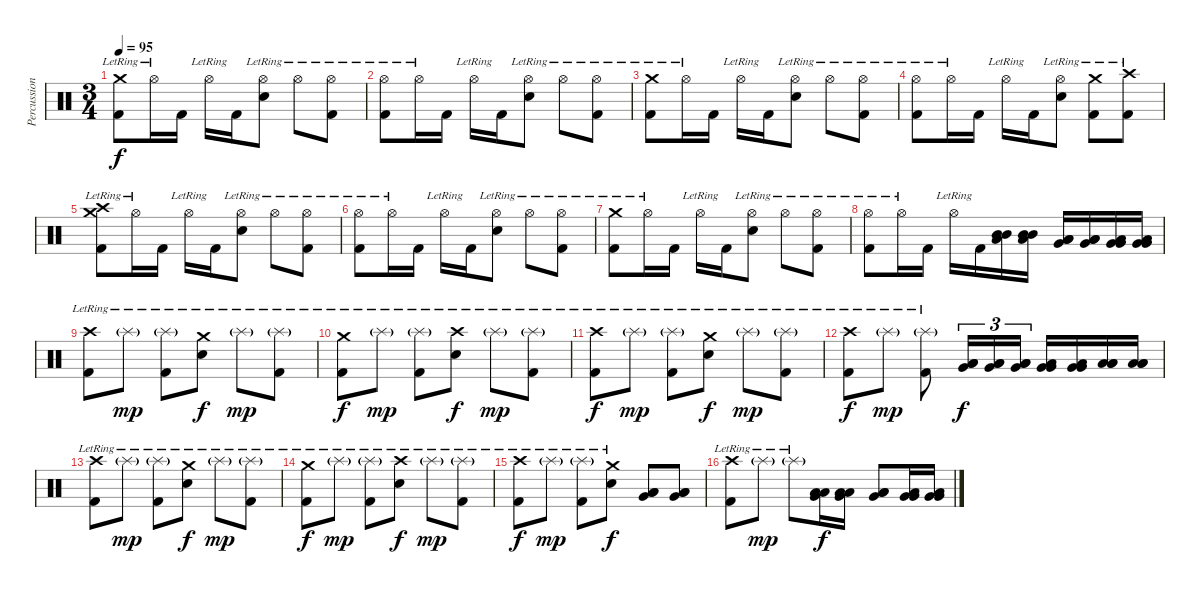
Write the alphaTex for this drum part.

\track ("Percussion I" "Percussion") {instrument percussion}
\staff {score}
\articulation defaults
\ts (3 4)
\tempo 95
\clef neutral
\ks c
("Crash medium (hit)"{lr} "Kick (hit) 2").8{dy f} "Hi-Hat (open)"{lr}.16 "Kick (hit) 2".16 "Hi-Hat (open)"{lr}.16 "Kick (hit) 2".16 ("Hi-Hat (open)"{lr} "Electric Snare (hit)").8 "Hi-Hat (open)"{lr}.8 ("Hi-Hat (open)"{lr} "Kick (hit) 2").8 |
("Hi-Hat (open)"{lr} "Kick (hit) 2").8 "Hi-Hat (open)"{lr}.16 "Kick (hit) 2".16 "Hi-Hat (open)"{lr}.16 "Kick (hit) 2".16 ("Hi-Hat (open)"{lr} "Electric Snare (hit)").8 "Hi-Hat (open)"{lr}.8 ("Hi-Hat (open)"{lr} "Kick (hit) 2").8 |
("Crash medium (hit)"{lr} "Kick (hit) 2").8 "Hi-Hat (open)"{lr}.16 "Kick (hit) 2".16 "Hi-Hat (open)"{lr}.16 "Kick (hit) 2".16 ("Hi-Hat (open)"{lr} "Electric Snare (hit)").8 "Hi-Hat (open)"{lr}.8 ("Hi-Hat (open)"{lr} "Kick (hit) 2").8 |
("Hi-Hat (open)"{lr} "Kick (hit) 2").8 "Hi-Hat (open)"{lr}.16 "Kick (hit) 2".16 "Hi-Hat (open)"{lr}.16 "Kick (hit) 2".16 ("Hi-Hat (open)"{lr} "Electric Snare (hit)").8 ("Crash medium (hit)"{lr} "Kick (hit) 2").8 ("Crash high (hit)"{lr} "Kick (hit) 2").8 |
("Crash medium (hit)"{lr} "Crash high (hit)"{lr} "Kick (hit) 2").8 "Hi-Hat (open)"{lr}.16 "Kick (hit) 2".16 "Hi-Hat (open)"{lr}.16 "Kick (hit) 2".16 ("Hi-Hat (open)"{lr} "Electric Snare (hit)").8 "Hi-Hat (open)"{lr}.8 ("Hi-Hat (open)"{lr} "Kick (hit) 2").8 |
("Hi-Hat (open)"{lr} "Kick (hit) 2").8 "Hi-Hat (open)"{lr}.16 "Kick (hit) 2".16 "Hi-Hat (open)"{lr}.16 "Kick (hit) 2".16 ("Hi-Hat (open)"{lr} "Electric Snare (hit)").8 "Hi-Hat (open)"{lr}.8 ("Hi-Hat (open)"{lr} "Kick (hit) 2").8 |
("Crash medium (hit)"{lr} "Kick (hit) 2").8 "Hi-Hat (open)"{lr}.16 "Kick (hit) 2".16 "Hi-Hat (open)"{lr}.16 "Kick (hit) 2".16 ("Hi-Hat (open)"{lr} "Electric Snare (hit)").8 "Hi-Hat (open)"{lr}.8 ("Hi-Hat (open)"{lr} "Kick (hit) 2").8 |
("Hi-Hat (open)"{lr} "Kick (hit) 2").8 "Hi-Hat (open)"{lr}.16 "Kick (hit) 2".16 "Hi-Hat (open)"{lr}.16 "Kick (hit) 2".16 ("Mid Tom (hit)" "Mid Tom (hit)" "Low Tom (hit)").16 ("Mid Tom (hit)" "Mid Tom (hit)" "Low Tom (hit)").16 ("Low Tom (hit)" "Low Tom (hit)" "Very Low Tom (hit)").16 ("Low Tom (hit)" "Low Tom (hit)" "Very Low Tom (hit)").16 ("Very Low Tom (hit)" "Very Low Tom (hit)" "Low Floor Tom (hit)").16 ("Very Low Tom (hit)" "Very Low Tom (hit)" "Low Floor Tom (hit)").16 |
("Crash high (hit)"{lr} "Kick (hit) 2").8 "Splash (hit)"{g lr}.8{dy mp} ("Splash (hit)"{g lr} "Kick (hit) 2").8 ("Crash medium (hit)"{lr} "Electric Snare (hit)").8{dy f} "Splash (hit)"{g lr}.8{dy mp} ("Splash (hit)"{g lr} "Kick (hit) 2").8 |
("Crash medium (hit)"{lr} "Kick (hit) 2").8{dy f} "Splash (hit)"{g lr}.8{dy mp} ("Splash (hit)"{g lr} "Kick (hit) 2").8 ("Crash high (hit)"{lr} "Electric Snare (hit)").8{dy f} "Splash (hit)"{g lr}.8{dy mp} ("Splash (hit)"{g lr} "Kick (hit) 2").8 |
("Crash high (hit)"{lr} "Kick (hit) 2").8{dy f} "Splash (hit)"{g lr}.8{dy mp} ("Splash (hit)"{g lr} "Kick (hit) 2").8 ("Crash medium (hit)"{lr} "Electric Snare (hit)").8{dy f} "Splash (hit)"{g lr}.8{dy mp} ("Splash (hit)"{g lr} "Kick (hit) 2").8 |
("Crash high (hit)"{lr} "Kick (hit) 2").8{dy f} "Splash (hit)"{g lr}.8{dy mp} ("Splash (hit)"{g lr} "Kick (hit) 2").8 ("Low Tom (hit)" "Low Tom (hit)" "Very Low Tom (hit)").16{tu (3 2) dy f} ("Low Tom (hit)" "Low Tom (hit)" "Very Low Tom (hit)").16{tu (3 2)} ("Low Tom (hit)" "Low Tom (hit)" "Very Low Tom (hit)").16{tu (3 2)} ("Very Low Tom (hit)" "Very Low Tom (hit)" "Low Floor Tom (hit)").16 ("Very Low Tom (hit)" "Very Low Tom (hit)" "Low Floor Tom (hit)").16 ("Low Floor Tom (hit)" "Low Floor Tom (hit)" "Low Floor Tom (hit)").16 ("Low Floor Tom (hit)" "Low Floor Tom (hit)" "Low Floor Tom (hit)").16 |
("Crash high (hit)"{lr} "Kick (hit) 2").8 "Splash (hit)"{g lr}.8{dy mp} ("Splash (hit)"{g lr} "Kick (hit) 2").8 ("Crash medium (hit)"{lr} "Electric Snare (hit)").8{dy f} "Splash (hit)"{g lr}.8{dy mp} ("Splash (hit)"{g lr} "Kick (hit) 2").8 |
("Crash medium (hit)"{lr} "Kick (hit) 2").8{dy f} "Splash (hit)"{g lr}.8{dy mp} ("Splash (hit)"{g lr} "Kick (hit) 2").8 ("Crash high (hit)"{lr} "Electric Snare (hit)").8{dy f} "Splash (hit)"{g lr}.8{dy mp} ("Splash (hit)"{g lr} "Kick (hit) 2").8 |
("Crash high (hit)"{lr} "Kick (hit) 2").8{dy f} "Splash (hit)"{g lr}.8{dy mp} ("Splash (hit)"{g lr} "Kick (hit) 2").8 ("Crash medium (hit)"{lr} "Electric Snare (hit)").8{dy f} ("Low Tom (hit)" "Low Tom (hit)" "Very Low Tom (hit)").8 ("Low Tom (hit)" "Low Tom (hit)" "Very Low Tom (hit)").8 |
("Crash high (hit)"{lr} "Kick (hit) 2").8 "Splash (hit)"{g lr}.8{dy mp} "Splash (hit)"{g lr}.8 ("Low Tom (hit)" "Low Tom (hit)" "Very Low Tom (hit)").16{dy f} ("Low Tom (hit)" "Low Tom (hit)" "Very Low Tom (hit)").16 ("Low Tom (hit)" "Low Tom (hit)" "Very Low Tom (hit)").8 ("Very Low Tom (hit)" "Very Low Tom (hit)" "Low Floor Tom (hit)").16 ("Very Low Tom (hit)" "Very Low Tom (hit)" "Low Floor Tom (hit)").16
